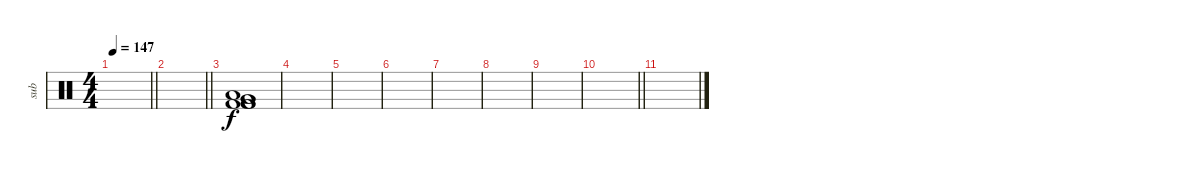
\track ("sub" "sub") {instrument percussion}
\staff {score}
\articulation defaults
\ts (4 4)
\tempo 147
\clef neutral
\barLineRight lightlight
\ks c
|
\barLineRight lightlight
|
\section ("" "")
("Low Floor Tom (hit)" "Very Low Tom (hit)" "Very Low Tom (hit)" "Kick (hit) 2" "Kick (hit) 2" "Kick (hit) 2").1 |
|
|
|
|
|
|
\barLineRight lightlight
|
\section ("" "")
